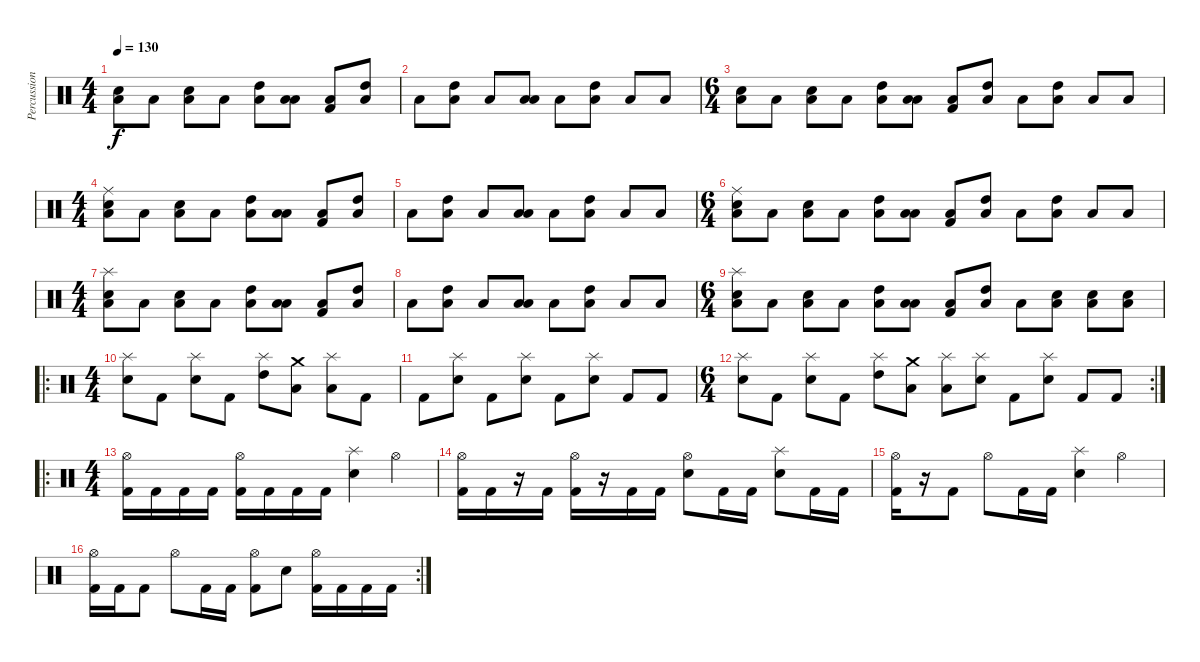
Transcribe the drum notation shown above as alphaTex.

\track ("Percussion" "Percussion") {instrument percussion}
\staff {score}
\articulation defaults
\ts (4 4)
\tempo 130
\clef neutral
\ks c
("Low Floor Tom (hit)" "Electric Snare (hit)").8{dy f volume 11} "Low Floor Tom (hit)".8 ("Low Floor Tom (hit)" "Electric Snare (hit)").8 "Low Floor Tom (hit)".8 ("Low Floor Tom (hit)" "High Tom (hit)").8 ("Low Floor Tom (hit)" "Low Tom (hit)").8 ("Low Floor Tom (hit)" "Kick (hit) 2").8 ("Low Floor Tom (hit)" "High Tom (hit)").8 |
"Low Floor Tom (hit)".8 ("Low Floor Tom (hit)" "High Tom (hit)").8 "Low Floor Tom (hit)".8 ("Low Floor Tom (hit)" "Low Tom (hit)").8 "Low Floor Tom (hit)".8 ("Low Floor Tom (hit)" "High Tom (hit)").8 "Low Floor Tom (hit)".8 "Low Floor Tom (hit)".8 |
\ts (6 4)
("Low Floor Tom (hit)" "Electric Snare (hit)").8 "Low Floor Tom (hit)".8 ("Low Floor Tom (hit)" "Electric Snare (hit)").8 "Low Floor Tom (hit)".8 ("Low Floor Tom (hit)" "High Tom (hit)").8 ("Low Floor Tom (hit)" "Low Tom (hit)").8 ("Low Floor Tom (hit)" "Kick (hit) 2").8 ("Low Floor Tom (hit)" "High Tom (hit)").8 "Low Floor Tom (hit)".8 ("Low Floor Tom (hit)" "High Tom (hit)").8 "Low Floor Tom (hit)".8 "Low Floor Tom (hit)".8 |
\ts (4 4)
("Ride (middle)" "Low Floor Tom (hit)" "Electric Snare (hit)").8 "Low Floor Tom (hit)".8 ("Low Floor Tom (hit)" "Electric Snare (hit)").8 "Low Floor Tom (hit)".8 ("Low Floor Tom (hit)" "High Tom (hit)").8 ("Low Floor Tom (hit)" "Low Tom (hit)").8{volume 16} ("Low Floor Tom (hit)" "Kick (hit) 2").8 ("Low Floor Tom (hit)" "High Tom (hit)").8 |
"Low Floor Tom (hit)".8 ("Low Floor Tom (hit)" "High Tom (hit)").8 "Low Floor Tom (hit)".8 ("Low Floor Tom (hit)" "Low Tom (hit)").8 "Low Floor Tom (hit)".8 ("Low Floor Tom (hit)" "High Tom (hit)").8 "Low Floor Tom (hit)".8 "Low Floor Tom (hit)".8 |
\ts (6 4)
("Ride (middle)" "Low Floor Tom (hit)" "Electric Snare (hit)").8 "Low Floor Tom (hit)".8 ("Low Floor Tom (hit)" "Electric Snare (hit)").8 "Low Floor Tom (hit)".8 ("Low Floor Tom (hit)" "High Tom (hit)").8 ("Low Floor Tom (hit)" "Low Tom (hit)").8 ("Low Floor Tom (hit)" "Kick (hit) 2").8 ("Low Floor Tom (hit)" "High Tom (hit)").8 "Low Floor Tom (hit)".8 ("Low Floor Tom (hit)" "High Tom (hit)").8 "Low Floor Tom (hit)".8 "Low Floor Tom (hit)".8 |
\ts (4 4)
("Splash (hit)" "Low Floor Tom (hit)" "Electric Snare (hit)").8 "Low Floor Tom (hit)".8 ("Low Floor Tom (hit)" "Electric Snare (hit)").8 "Low Floor Tom (hit)".8 ("Low Floor Tom (hit)" "High Tom (hit)").8 ("Low Floor Tom (hit)" "Low Tom (hit)").8 ("Low Floor Tom (hit)" "Kick (hit) 2").8 ("Low Floor Tom (hit)" "High Tom (hit)").8 |
"Low Floor Tom (hit)".8 ("Low Floor Tom (hit)" "High Tom (hit)").8 "Low Floor Tom (hit)".8 ("Low Floor Tom (hit)" "Low Tom (hit)").8 "Low Floor Tom (hit)".8 ("Low Floor Tom (hit)" "High Tom (hit)").8 "Low Floor Tom (hit)".8 "Low Floor Tom (hit)".8 |
\ts (6 4)
("Splash (hit)" "Low Floor Tom (hit)" "Electric Snare (hit)").8 "Low Floor Tom (hit)".8 ("Low Floor Tom (hit)" "Electric Snare (hit)").8 "Low Floor Tom (hit)".8 ("Low Floor Tom (hit)" "High Tom (hit)").8 ("Low Floor Tom (hit)" "Low Tom (hit)").8 ("Low Floor Tom (hit)" "Kick (hit) 2").8 ("Low Floor Tom (hit)" "High Tom (hit)").8 "Low Floor Tom (hit)".8 ("Low Floor Tom (hit)" "Electric Snare (hit)").8 ("Low Floor Tom (hit)" "Electric Snare (hit)").8 ("Low Floor Tom (hit)" "Electric Snare (hit)").8 |
\ro
\ts (4 4)
("Splash (hit)" "Electric Snare (hit)").8 "Kick (hit) 2".8 ("Splash (hit)" "Electric Snare (hit)").8 "Kick (hit) 2".8 ("Splash (hit)" "High Tom (hit)").8 ("Crash medium (hit)" "Low Tom (hit)").8 ("Splash (hit)" "Low Floor Tom (hit)").8 "Kick (hit) 2".8 |
"Kick (hit) 2".8 ("Splash (hit)" "Electric Snare (hit)").8 "Kick (hit) 2".8 ("Splash (hit)" "Electric Snare (hit)").8 "Kick (hit) 2".8 ("Splash (hit)" "Electric Snare (hit)").8 "Kick (hit) 2".8 "Kick (hit) 2".8 |
\rc 2
\ts (6 4)
("Splash (hit)" "Electric Snare (hit)").8 "Kick (hit) 2".8 ("Splash (hit)" "Electric Snare (hit)").8 "Kick (hit) 2".8 ("Splash (hit)" "High Tom (hit)").8 ("Crash medium (hit)" "Low Tom (hit)").8 ("Splash (hit)" "Low Floor Tom (hit)").8 ("Splash (hit)" "Electric Snare (hit)").8 "Kick (hit) 2".8 ("Splash (hit)" "Electric Snare (hit)").8 "Kick (hit) 2".8 "Kick (hit) 2".8 |
\ro
\ts (4 4)
("Hi-Hat (open)" "Kick (hit) 2").16 "Kick (hit) 2".16 "Kick (hit) 2".16 "Kick (hit) 2".16 ("Hi-Hat (open)" "Kick (hit) 2").16 "Kick (hit) 2".16 "Kick (hit) 2".16 "Kick (hit) 2".16 ("Splash (hit)" "Electric Snare (hit)").4 "Hi-Hat (open)".4 |
("Hi-Hat (open)" "Kick (hit) 2").16 "Kick (hit) 2".16 r.16 "Kick (hit) 2".16 ("Hi-Hat (open)" "Kick (hit) 2").16 r.16 "Kick (hit) 2".16 "Kick (hit) 2".16 ("Hi-Hat (open)" "Electric Snare (hit)").8 "Kick (hit) 2".16 "Kick (hit) 2".16 ("Splash (hit)" "Electric Snare (hit)").8 "Kick (hit) 2".16 "Kick (hit) 2".16 |
("Hi-Hat (open)" "Kick (hit) 2").16 r.16 "Kick (hit) 2".8 "Hi-Hat (open)".8 "Kick (hit) 2".16 "Kick (hit) 2".16 ("Splash (hit)" "Electric Snare (hit)").4 "Hi-Hat (open)".4 |
\rc 2
("Hi-Hat (open)" "Kick (hit) 2").16 "Kick (hit) 2".16 "Kick (hit) 2".8 "Hi-Hat (open)".8 "Kick (hit) 2".16 "Kick (hit) 2".16 ("Hi-Hat (open)" "Kick (hit) 2").8 "Electric Snare (hit)".8 ("Hi-Hat (open)" "Kick (hit) 2").16 "Kick (hit) 2".16 "Kick (hit) 2".16 "Kick (hit) 2".16
